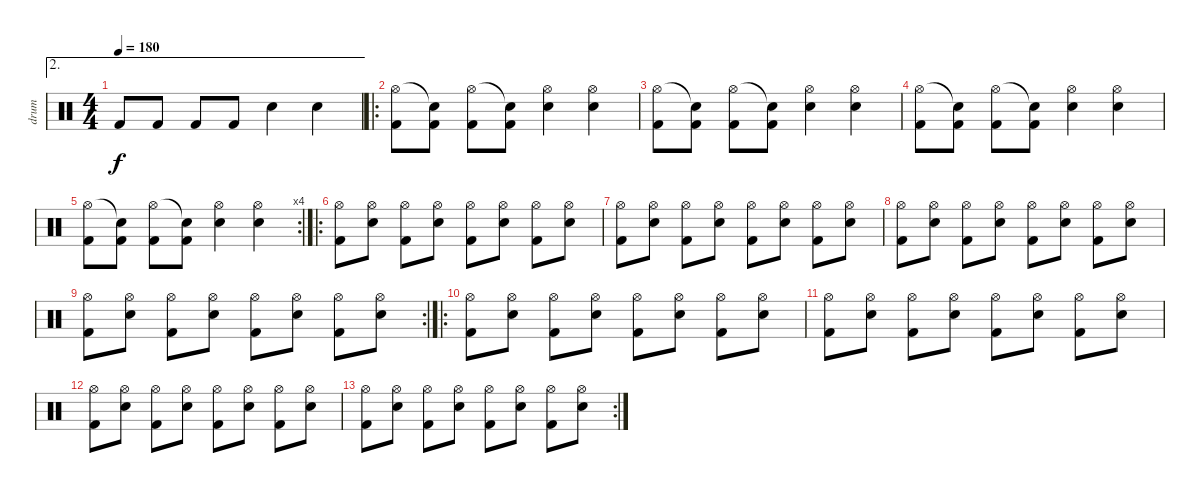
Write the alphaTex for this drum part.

\track ("drum" "drum") {instrument percussion}
\staff {score}
\articulation defaults
\ae 2
\ts (4 4)
\tempo 180
\clef neutral
\ks c "Kick (hit) 2".8{dy f} "Kick (hit) 2".8 "Kick (hit) 2".8 "Kick (hit) 2".8 "Snare (hit) 2".4 "Snare (hit) 2".4
|
\ro
("Hi-Hat (open)" "Kick (hit) 2").8 ("Snare (hit)"{t} "Kick (hit) 2").8 ("Hi-Hat (open)" "Kick (hit) 2").8 ("Snare (hit)"{t} "Kick (hit) 2").8 ("Hi-Hat (open)" "Snare (hit) 2").4 ("Hi-Hat (open)" "Snare (hit) 2").4 |
("Hi-Hat (open)" "Kick (hit) 2").8 ("Snare (hit)"{t} "Kick (hit) 2").8 ("Hi-Hat (open)" "Kick (hit) 2").8 ("Snare (hit)"{t} "Kick (hit) 2").8 ("Hi-Hat (open)" "Snare (hit) 2").4 ("Hi-Hat (open)" "Snare (hit) 2").4 |
("Hi-Hat (open)" "Kick (hit) 2").8 ("Snare (hit)"{t} "Kick (hit) 2").8 ("Hi-Hat (open)" "Kick (hit) 2").8 ("Snare (hit)"{t} "Kick (hit) 2").8 ("Hi-Hat (open)" "Snare (hit) 2").4 ("Hi-Hat (open)" "Snare (hit) 2").4 |
\rc 4
("Hi-Hat (open)" "Kick (hit) 2").8 ("Snare (hit)"{t} "Kick (hit) 2").8 ("Hi-Hat (open)" "Kick (hit) 2").8 ("Snare (hit)"{t} "Kick (hit) 2").8 ("Hi-Hat (open)" "Snare (hit) 2").4 ("Hi-Hat (open)" "Snare (hit) 2").4 |
\ro
("Hi-Hat (open)" "Kick (hit) 2").8 ("Hi-Hat (open)" "Snare (hit) 2").8 ("Hi-Hat (open)" "Kick (hit) 2").8 ("Hi-Hat (open)" "Snare (hit) 2").8 ("Hi-Hat (open)" "Kick (hit) 2").8 ("Hi-Hat (open)" "Snare (hit) 2").8 ("Hi-Hat (open)" "Kick (hit) 2").8 ("Hi-Hat (open)" "Snare (hit) 2").8 |
("Hi-Hat (open)" "Kick (hit) 2").8 ("Hi-Hat (open)" "Snare (hit) 2").8 ("Hi-Hat (open)" "Kick (hit) 2").8 ("Hi-Hat (open)" "Snare (hit) 2").8 ("Hi-Hat (open)" "Kick (hit) 2").8 ("Hi-Hat (open)" "Snare (hit) 2").8 ("Hi-Hat (open)" "Kick (hit) 2").8 ("Hi-Hat (open)" "Snare (hit) 2").8 |
("Hi-Hat (open)" "Kick (hit) 2").8 ("Hi-Hat (open)" "Snare (hit) 2").8 ("Hi-Hat (open)" "Kick (hit) 2").8 ("Hi-Hat (open)" "Snare (hit) 2").8 ("Hi-Hat (open)" "Kick (hit) 2").8 ("Hi-Hat (open)" "Snare (hit) 2").8 ("Hi-Hat (open)" "Kick (hit) 2").8 ("Hi-Hat (open)" "Snare (hit) 2").8 |
\rc 2
("Hi-Hat (open)" "Kick (hit) 2").8 ("Hi-Hat (open)" "Snare (hit) 2").8 ("Hi-Hat (open)" "Kick (hit) 2").8 ("Hi-Hat (open)" "Snare (hit) 2").8 ("Hi-Hat (open)" "Kick (hit) 2").8 ("Hi-Hat (open)" "Snare (hit) 2").8 ("Hi-Hat (open)" "Kick (hit) 2").8 ("Hi-Hat (open)" "Snare (hit) 2").8 |
\ro
("Hi-Hat (open)" "Kick (hit) 2").8 ("Hi-Hat (open)" "Snare (hit) 2").8 ("Hi-Hat (open)" "Kick (hit) 2").8 ("Hi-Hat (open)" "Snare (hit) 2").8 ("Hi-Hat (open)" "Kick (hit) 2").8 ("Hi-Hat (open)" "Snare (hit) 2").8 ("Hi-Hat (open)" "Kick (hit) 2").8 ("Hi-Hat (open)" "Snare (hit) 2").8 |
("Hi-Hat (open)" "Kick (hit) 2").8 ("Hi-Hat (open)" "Snare (hit) 2").8 ("Hi-Hat (open)" "Kick (hit) 2").8 ("Hi-Hat (open)" "Snare (hit) 2").8 ("Hi-Hat (open)" "Kick (hit) 2").8 ("Hi-Hat (open)" "Snare (hit) 2").8 ("Hi-Hat (open)" "Kick (hit) 2").8 ("Hi-Hat (open)" "Snare (hit) 2").8 |
("Hi-Hat (open)" "Kick (hit) 2").8 ("Hi-Hat (open)" "Snare (hit) 2").8 ("Hi-Hat (open)" "Kick (hit) 2").8 ("Hi-Hat (open)" "Snare (hit) 2").8 ("Hi-Hat (open)" "Kick (hit) 2").8 ("Hi-Hat (open)" "Snare (hit) 2").8 ("Hi-Hat (open)" "Kick (hit) 2").8 ("Hi-Hat (open)" "Snare (hit) 2").8 |
\rc 2
("Hi-Hat (open)" "Kick (hit) 2").8 ("Hi-Hat (open)" "Snare (hit) 2").8 ("Hi-Hat (open)" "Kick (hit) 2").8 ("Hi-Hat (open)" "Snare (hit) 2").8 ("Hi-Hat (open)" "Kick (hit) 2").8 ("Hi-Hat (open)" "Snare (hit) 2").8 ("Hi-Hat (open)" "Kick (hit) 2").8 ("Hi-Hat (open)" "Snare (hit) 2").8
